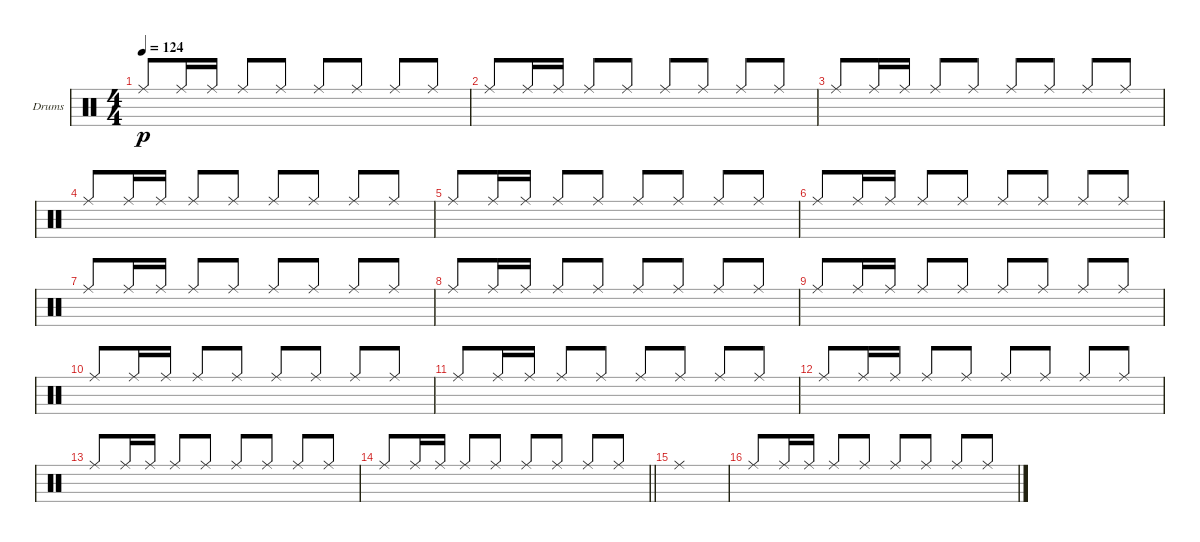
\bracketExtendMode groupsimilarinstruments
\firstSystemTrackNameOrientation horizontal
\otherSystemsTrackNameOrientation horizontal
\track ("Ride Cymbal" "Drums") {instrument percussion}
\staff {score}
\articulation defaults
\ts (4 4)
\tempo 124
\clef neutral
\scale
0.333333
\ks c "Ride (middle)".8{dy p beam invert} "Ride (middle)".16 "Ride (middle)".16 "Ride (middle)".8{beam invert} "Ride (middle)".8 "Ride (middle)".8{beam invert} "Ride (middle)".8 "Ride (middle)".8{beam invert} "Ride (middle)".8
|
\scale
0.333333 "Ride (middle)".8{beam invert} "Ride (middle)".16 "Ride (middle)".16 "Ride (middle)".8{beam invert} "Ride (middle)".8 "Ride (middle)".8{beam invert} "Ride (middle)".8 "Ride (middle)".8{beam invert} "Ride (middle)".8 |
\scale
0.333333 "Ride (middle)".8{beam invert} "Ride (middle)".16 "Ride (middle)".16 "Ride (middle)".8{beam invert} "Ride (middle)".8 "Ride (middle)".8{beam invert} "Ride (middle)".8 "Ride (middle)".8{beam invert} "Ride (middle)".8 |
\scale
0.333333 "Ride (middle)".8{beam invert} "Ride (middle)".16 "Ride (middle)".16 "Ride (middle)".8{beam invert} "Ride (middle)".8 "Ride (middle)".8{beam invert} "Ride (middle)".8 "Ride (middle)".8{beam invert} "Ride (middle)".8 |
\scale
0.333333 "Ride (middle)".8{beam invert} "Ride (middle)".16 "Ride (middle)".16 "Ride (middle)".8{beam invert} "Ride (middle)".8 "Ride (middle)".8{beam invert} "Ride (middle)".8 "Ride (middle)".8{beam invert} "Ride (middle)".8 |
\scale
0.333333 "Ride (middle)".8{beam invert} "Ride (middle)".16 "Ride (middle)".16 "Ride (middle)".8{beam invert} "Ride (middle)".8 "Ride (middle)".8{beam invert} "Ride (middle)".8 "Ride (middle)".8{beam invert} "Ride (middle)".8 |
\scale
0.333333 "Ride (middle)".8{beam invert} "Ride (middle)".16 "Ride (middle)".16 "Ride (middle)".8{beam invert} "Ride (middle)".8 "Ride (middle)".8{beam invert} "Ride (middle)".8 "Ride (middle)".8{beam invert} "Ride (middle)".8 |
\scale
0.333333 "Ride (middle)".8{beam invert} "Ride (middle)".16 "Ride (middle)".16 "Ride (middle)".8{beam invert} "Ride (middle)".8 "Ride (middle)".8{beam invert} "Ride (middle)".8 "Ride (middle)".8{beam invert} "Ride (middle)".8 |
\scale
0.333333 "Ride (middle)".8{beam invert} "Ride (middle)".16 "Ride (middle)".16 "Ride (middle)".8{beam invert} "Ride (middle)".8 "Ride (middle)".8{beam invert} "Ride (middle)".8 "Ride (middle)".8{beam invert} "Ride (middle)".8 |
\scale
0.333333 "Ride (middle)".8{beam invert} "Ride (middle)".16 "Ride (middle)".16 "Ride (middle)".8{beam invert} "Ride (middle)".8 "Ride (middle)".8{beam invert} "Ride (middle)".8 "Ride (middle)".8{beam invert} "Ride (middle)".8 |
\scale
0.333333 "Ride (middle)".8{beam invert} "Ride (middle)".16 "Ride (middle)".16 "Ride (middle)".8{beam invert} "Ride (middle)".8 "Ride (middle)".8{beam invert} "Ride (middle)".8 "Ride (middle)".8{beam invert} "Ride (middle)".8 |
\scale
0.333333 "Ride (middle)".8{beam invert} "Ride (middle)".16 "Ride (middle)".16 "Ride (middle)".8{beam invert} "Ride (middle)".8 "Ride (middle)".8{beam invert} "Ride (middle)".8 "Ride (middle)".8{beam invert} "Ride (middle)".8 |
\scale
0.333333 "Ride (middle)".8{beam invert} "Ride (middle)".16 "Ride (middle)".16 "Ride (middle)".8{beam invert} "Ride (middle)".8 "Ride (middle)".8{beam invert} "Ride (middle)".8 "Ride (middle)".8{beam invert} "Ride (middle)".8 |
\scale
0.333333
\barLineRight lightlight "Ride (middle)".8{beam invert} "Ride (middle)".16 "Ride (middle)".16 "Ride (middle)".8{beam invert} "Ride (middle)".8 "Ride (middle)".8{beam invert} "Ride (middle)".8 "Ride (middle)".8{beam invert} "Ride (middle)".8
|
\scale
0.333333 "Ride (middle)".1 |
\scale
0.333333 "Ride (middle)".8{beam invert} "Ride (middle)".16 "Ride (middle)".16 "Ride (middle)".8{beam invert} "Ride (middle)".8 "Ride (middle)".8{beam invert} "Ride (middle)".8 "Ride (middle)".8{beam invert} "Ride (middle)".8
